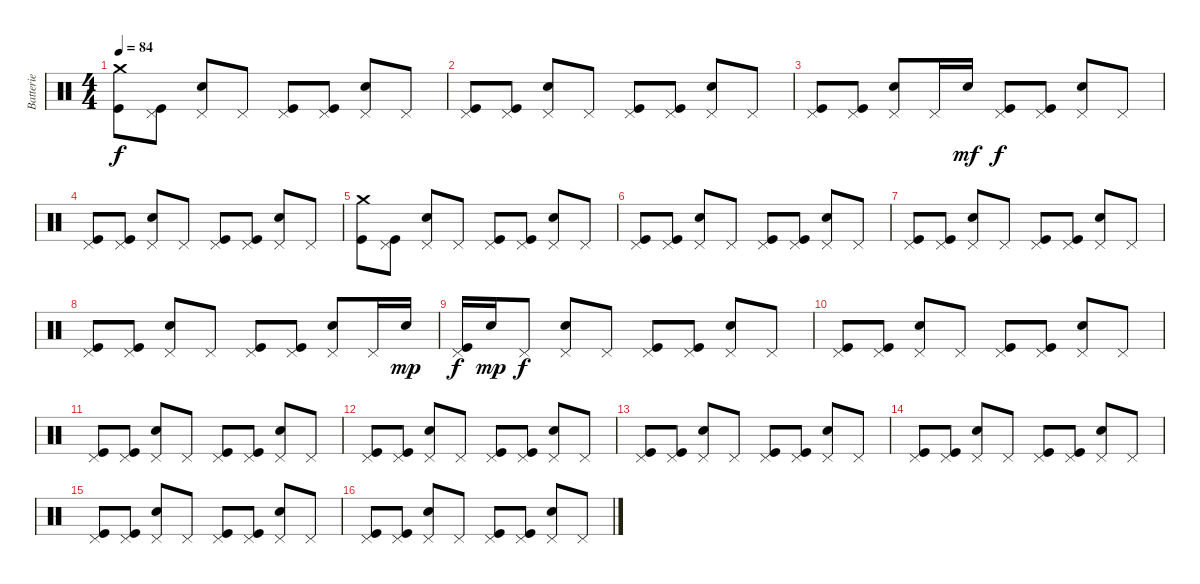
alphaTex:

\track ("Batterie" "Batterie") {instrument percussion}
\staff {score}
\articulation defaults
\ts (4 4)
\tempo 84
\clef neutral
\ks c
("Crash medium (hit)" "Kick (hit)").8{dy f} ("Pedal Hi-Hat (hit)" "Kick (hit)").8 ("Pedal Hi-Hat (hit)" "Electric Snare (hit)").8 "Pedal Hi-Hat (hit)".8 ("Pedal Hi-Hat (hit)" "Kick (hit)").8 ("Pedal Hi-Hat (hit)" "Kick (hit)").8 ("Pedal Hi-Hat (hit)" "Electric Snare (hit)").8 "Pedal Hi-Hat (hit)".8 |
("Pedal Hi-Hat (hit)" "Kick (hit)").8 ("Pedal Hi-Hat (hit)" "Kick (hit)").8 ("Pedal Hi-Hat (hit)" "Electric Snare (hit)").8 "Pedal Hi-Hat (hit)".8 ("Pedal Hi-Hat (hit)" "Kick (hit)").8 ("Pedal Hi-Hat (hit)" "Kick (hit)").8 ("Pedal Hi-Hat (hit)" "Electric Snare (hit)").8 "Pedal Hi-Hat (hit)".8 |
("Pedal Hi-Hat (hit)" "Kick (hit)").8 ("Pedal Hi-Hat (hit)" "Kick (hit)").8 ("Pedal Hi-Hat (hit)" "Electric Snare (hit)").8 "Pedal Hi-Hat (hit)".16 "Snare (hit) 2".16{dy mf} ("Pedal Hi-Hat (hit)" "Kick (hit)").8{dy f} ("Pedal Hi-Hat (hit)" "Kick (hit)").8 ("Pedal Hi-Hat (hit)" "Electric Snare (hit)").8 "Pedal Hi-Hat (hit)".8 |
("Pedal Hi-Hat (hit)" "Kick (hit)").8 ("Pedal Hi-Hat (hit)" "Kick (hit)").8 ("Pedal Hi-Hat (hit)" "Electric Snare (hit)").8 "Pedal Hi-Hat (hit)".8 ("Pedal Hi-Hat (hit)" "Kick (hit)").8 ("Pedal Hi-Hat (hit)" "Kick (hit)").8 ("Pedal Hi-Hat (hit)" "Electric Snare (hit)").8 "Pedal Hi-Hat (hit)".8 |
("Crash medium (hit)" "Kick (hit)").8 ("Pedal Hi-Hat (hit)" "Kick (hit)").8 ("Pedal Hi-Hat (hit)" "Electric Snare (hit)").8 "Pedal Hi-Hat (hit)".8 ("Pedal Hi-Hat (hit)" "Kick (hit)").8 ("Pedal Hi-Hat (hit)" "Kick (hit)").8 ("Pedal Hi-Hat (hit)" "Electric Snare (hit)").8 "Pedal Hi-Hat (hit)".8 |
("Pedal Hi-Hat (hit)" "Kick (hit)").8 ("Pedal Hi-Hat (hit)" "Kick (hit)").8 ("Pedal Hi-Hat (hit)" "Electric Snare (hit)").8 "Pedal Hi-Hat (hit)".8 ("Pedal Hi-Hat (hit)" "Kick (hit)").8 ("Pedal Hi-Hat (hit)" "Kick (hit)").8 ("Pedal Hi-Hat (hit)" "Electric Snare (hit)").8 "Pedal Hi-Hat (hit)".8 |
("Pedal Hi-Hat (hit)" "Kick (hit)").8 ("Pedal Hi-Hat (hit)" "Kick (hit)").8 ("Pedal Hi-Hat (hit)" "Electric Snare (hit)").8 "Pedal Hi-Hat (hit)".8 ("Pedal Hi-Hat (hit)" "Kick (hit)").8 ("Pedal Hi-Hat (hit)" "Kick (hit)").8 ("Pedal Hi-Hat (hit)" "Electric Snare (hit)").8 "Pedal Hi-Hat (hit)".8 |
("Pedal Hi-Hat (hit)" "Kick (hit)").8 ("Pedal Hi-Hat (hit)" "Kick (hit)").8 ("Pedal Hi-Hat (hit)" "Electric Snare (hit)").8 "Pedal Hi-Hat (hit)".8 ("Pedal Hi-Hat (hit)" "Kick (hit)").8 ("Pedal Hi-Hat (hit)" "Kick (hit)").8 ("Pedal Hi-Hat (hit)" "Electric Snare (hit)").8 "Pedal Hi-Hat (hit)".16 "Snare (hit) 2".16{dy mp} |
("Pedal Hi-Hat (hit)" "Kick (hit)").16{dy f} "Snare (hit) 2".16{dy mp} "Pedal Hi-Hat (hit)".8{dy f} ("Pedal Hi-Hat (hit)" "Electric Snare (hit)").8 "Pedal Hi-Hat (hit)".8 ("Pedal Hi-Hat (hit)" "Kick (hit)").8 ("Pedal Hi-Hat (hit)" "Kick (hit)").8 ("Pedal Hi-Hat (hit)" "Electric Snare (hit)").8 "Pedal Hi-Hat (hit)".8 |
("Pedal Hi-Hat (hit)" "Kick (hit)").8 ("Pedal Hi-Hat (hit)" "Kick (hit)").8 ("Pedal Hi-Hat (hit)" "Electric Snare (hit)").8 "Pedal Hi-Hat (hit)".8 ("Pedal Hi-Hat (hit)" "Kick (hit)").8 ("Pedal Hi-Hat (hit)" "Kick (hit)").8 ("Pedal Hi-Hat (hit)" "Electric Snare (hit)").8 "Pedal Hi-Hat (hit)".8 |
("Pedal Hi-Hat (hit)" "Kick (hit)").8 ("Pedal Hi-Hat (hit)" "Kick (hit)").8 ("Pedal Hi-Hat (hit)" "Electric Snare (hit)").8 "Pedal Hi-Hat (hit)".8 ("Pedal Hi-Hat (hit)" "Kick (hit)").8 ("Pedal Hi-Hat (hit)" "Kick (hit)").8 ("Pedal Hi-Hat (hit)" "Electric Snare (hit)").8 "Pedal Hi-Hat (hit)".8 |
("Pedal Hi-Hat (hit)" "Kick (hit)").8 ("Pedal Hi-Hat (hit)" "Kick (hit)").8 ("Pedal Hi-Hat (hit)" "Electric Snare (hit)").8 "Pedal Hi-Hat (hit)".8 ("Pedal Hi-Hat (hit)" "Kick (hit)").8 ("Pedal Hi-Hat (hit)" "Kick (hit)").8 ("Pedal Hi-Hat (hit)" "Electric Snare (hit)").8 "Pedal Hi-Hat (hit)".8 |
("Pedal Hi-Hat (hit)" "Kick (hit)").8 ("Pedal Hi-Hat (hit)" "Kick (hit)").8 ("Pedal Hi-Hat (hit)" "Electric Snare (hit)").8 "Pedal Hi-Hat (hit)".8 ("Pedal Hi-Hat (hit)" "Kick (hit)").8 ("Pedal Hi-Hat (hit)" "Kick (hit)").8 ("Pedal Hi-Hat (hit)" "Electric Snare (hit)").8 "Pedal Hi-Hat (hit)".8 |
("Pedal Hi-Hat (hit)" "Kick (hit)").8 ("Pedal Hi-Hat (hit)" "Kick (hit)").8 ("Pedal Hi-Hat (hit)" "Electric Snare (hit)").8 "Pedal Hi-Hat (hit)".8 ("Pedal Hi-Hat (hit)" "Kick (hit)").8 ("Pedal Hi-Hat (hit)" "Kick (hit)").8 ("Pedal Hi-Hat (hit)" "Electric Snare (hit)").8 "Pedal Hi-Hat (hit)".8 |
("Pedal Hi-Hat (hit)" "Kick (hit)").8 ("Pedal Hi-Hat (hit)" "Kick (hit)").8 ("Pedal Hi-Hat (hit)" "Electric Snare (hit)").8 "Pedal Hi-Hat (hit)".8 ("Pedal Hi-Hat (hit)" "Kick (hit)").8 ("Pedal Hi-Hat (hit)" "Kick (hit)").8 ("Pedal Hi-Hat (hit)" "Electric Snare (hit)").8 "Pedal Hi-Hat (hit)".8 |
("Pedal Hi-Hat (hit)" "Kick (hit)").8 ("Pedal Hi-Hat (hit)" "Kick (hit)").8 ("Pedal Hi-Hat (hit)" "Electric Snare (hit)").8 "Pedal Hi-Hat (hit)".8 ("Pedal Hi-Hat (hit)" "Kick (hit)").8 ("Pedal Hi-Hat (hit)" "Kick (hit)").8 ("Pedal Hi-Hat (hit)" "Electric Snare (hit)").8 "Pedal Hi-Hat (hit)".8
